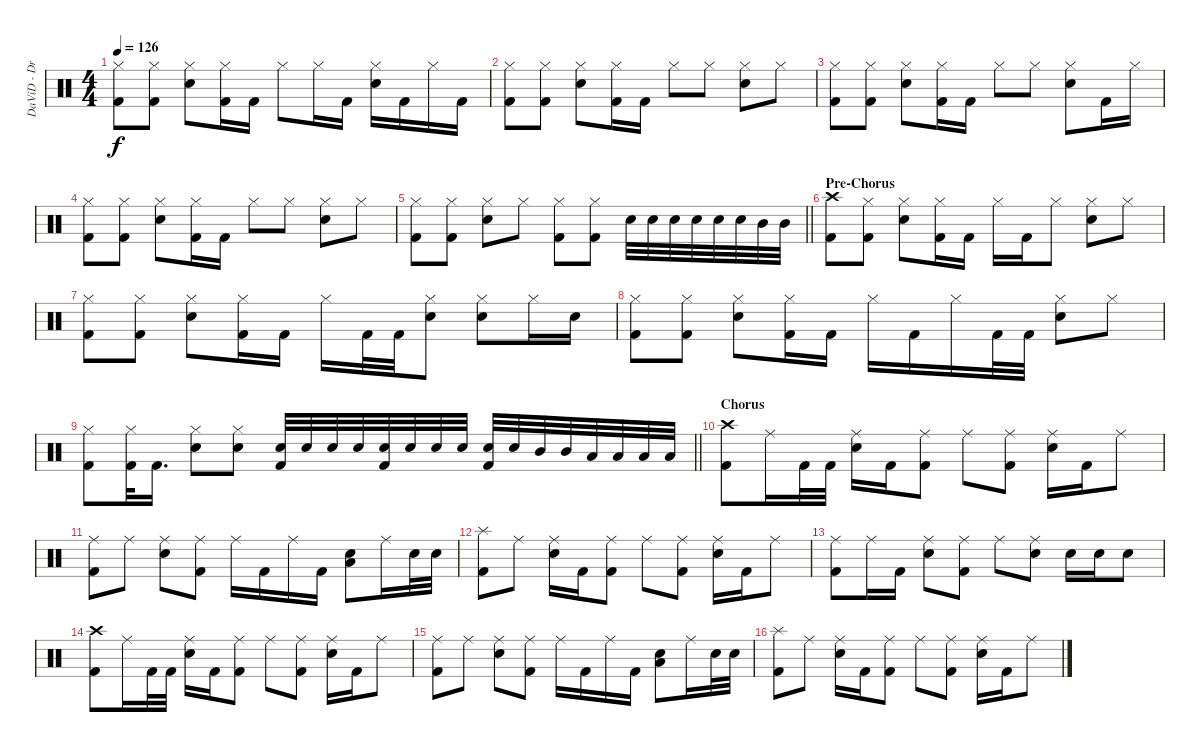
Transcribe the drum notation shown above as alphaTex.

\track ("DaViD - DruMzZ" "DaViD - Dr") {instrument percussion}
\staff {score}
\articulation defaults
\ts (4 4)
\tempo 126
\clef neutral
\ks c
("Hi-Hat (closed)" "Kick (hit) 2").8{dy f} ("Hi-Hat (closed)" "Kick (hit) 2").8 ("Hi-Hat (closed)" "Snare (hit) 2").8 ("Hi-Hat (closed)" "Kick (hit) 2").16 "Kick (hit) 2".16 "Hi-Hat (closed)".8 "Hi-Hat (closed)".16 "Kick (hit) 2".16 ("Hi-Hat (closed)" "Snare (hit) 2").16 "Kick (hit) 2".16 "Hi-Hat (closed)".16 "Kick (hit) 2".16 |
("Hi-Hat (closed)" "Kick (hit) 2").8 ("Hi-Hat (closed)" "Kick (hit) 2").8 ("Hi-Hat (closed)" "Snare (hit) 2").8 ("Hi-Hat (closed)" "Kick (hit) 2").16 "Kick (hit) 2".16 "Hi-Hat (closed)".8 "Hi-Hat (closed)".8 ("Hi-Hat (closed)" "Snare (hit) 2").8 "Hi-Hat (closed)".8 |
("Hi-Hat (closed)" "Kick (hit) 2").8 ("Hi-Hat (closed)" "Kick (hit) 2").8 ("Hi-Hat (closed)" "Snare (hit) 2").8 ("Hi-Hat (closed)" "Kick (hit) 2").16 "Kick (hit) 2".16 "Hi-Hat (closed)".8 "Hi-Hat (closed)".8 ("Hi-Hat (closed)" "Snare (hit) 2").8 "Kick (hit) 2".16 "Hi-Hat (closed)".16 |
("Hi-Hat (closed)" "Kick (hit) 2").8 ("Hi-Hat (closed)" "Kick (hit) 2").8 ("Hi-Hat (closed)" "Snare (hit) 2").8 ("Hi-Hat (closed)" "Kick (hit) 2").16 "Kick (hit) 2".16 "Hi-Hat (closed)".8 "Hi-Hat (closed)".8 ("Hi-Hat (closed)" "Snare (hit) 2").8 "Hi-Hat (closed)".8 |
\barLineRight lightlight
("Hi-Hat (closed)" "Kick (hit) 2").8 ("Hi-Hat (closed)" "Kick (hit) 2").8 ("Hi-Hat (closed)" "Snare (hit) 2").8 "Hi-Hat (closed)".8 ("Hi-Hat (closed)" "Kick (hit) 2").8 ("Hi-Hat (closed)" "Kick (hit) 2").8 "Snare (hit) 2".32 "Snare (hit) 2".32 "Snare (hit) 2".32 "Snare (hit) 2".32 "Snare (hit) 2".32 "Snare (hit) 2".32 "Mid Tom (hit)".32 "Mid Tom (hit)".32 |
\section ("" "Pre-Chorus")
("Crash high (hit)" "Kick (hit) 2").8 ("Hi-Hat (closed)" "Kick (hit) 2").8 ("Hi-Hat (closed)" "Snare (hit) 2").8 ("Hi-Hat (closed)" "Kick (hit) 2").16 "Kick (hit) 2".16 "Hi-Hat (closed)".16 "Kick (hit) 2".16 "Hi-Hat (closed)".8 ("Hi-Hat (closed)" "Snare (hit) 2").8 "Hi-Hat (closed)".8 |
("Hi-Hat (closed)" "Kick (hit) 2").8 ("Hi-Hat (closed)" "Kick (hit) 2").8 ("Hi-Hat (closed)" "Snare (hit) 2").8 ("Hi-Hat (closed)" "Kick (hit) 2").16 "Kick (hit) 2".16 "Hi-Hat (closed)".16 "Kick (hit) 2".32 "Kick (hit) 2".32 ("Hi-Hat (closed)" "Snare (hit) 2").8 ("Hi-Hat (closed)" "Snare (hit) 2").8 "Hi-Hat (closed)".16 "Snare (hit) 2".16 |
("Hi-Hat (closed)" "Kick (hit) 2").8 ("Hi-Hat (closed)" "Kick (hit) 2").8 ("Hi-Hat (closed)" "Snare (hit) 2").8 ("Hi-Hat (closed)" "Kick (hit) 2").16 "Kick (hit) 2".16 "Hi-Hat (closed)".16 "Kick (hit) 2".16 "Hi-Hat (closed)".16 "Kick (hit) 2".32 "Kick (hit) 2".32 ("Hi-Hat (closed)" "Snare (hit) 2").8 "Hi-Hat (closed)".8 |
\barLineRight lightlight
("Hi-Hat (closed)" "Kick (hit) 2").8 ("Hi-Hat (closed)" "Kick (hit) 2").32 "Kick (hit) 2".16{d} ("Hi-Hat (closed)" "Snare (hit) 2").8 ("Hi-Hat (closed)" "Snare (hit) 2").8 ("Snare (hit) 2" "Kick (hit) 2").32 "Snare (hit) 2".32 "Snare (hit) 2".32 "Snare (hit) 2".32 ("Snare (hit) 2" "Kick (hit) 2").32 "Snare (hit) 2".32 "Snare (hit) 2".32 "Snare (hit) 2".32 ("Snare (hit) 2" "Kick (hit) 2").32 "Snare (hit) 2".32 "Mid Tom (hit)".32 "Mid Tom (hit)".32 "Low Tom (hit)".32 "Low Tom (hit)".32 "Low Floor Tom (hit)".32 "Low Floor Tom (hit)".32 |
\section ("" "Chorus")
("Crash high (hit)" "Kick (hit) 2").8 "Ride (middle)".16 "Kick (hit) 2".32 "Kick (hit) 2".32 ("Ride (middle)" "Snare (hit) 2").16 "Kick (hit) 2".16 ("Ride (middle)" "Kick (hit) 2").8 "Ride (middle)".8 ("Ride (middle)" "Kick (hit) 2").8 ("Ride (middle)" "Snare (hit) 2").16 "Kick (hit) 2".16 "Ride (middle)".8 |
("Ride (middle)" "Kick (hit) 2").8 "Ride (middle)".8 ("Ride (middle)" "Snare (hit) 2").8 ("Ride (middle)" "Kick (hit) 2").8 "Ride (middle)".16 "Kick (hit) 2".16 "Ride (middle)".16 "Kick (hit) 2".16 ("Snare (hit) 2" "Low Floor Tom (hit)").8 "Ride (middle)".16 "Snare (hit) 2".32 "Snare (hit) 2".32 |
("Splash (hit)" "Kick (hit) 2").8 "Ride (middle)".8 ("Ride (middle)" "Snare (hit) 2").16 "Kick (hit) 2".16 ("Ride (middle)" "Kick (hit) 2").8 "Ride (middle)".8 ("Ride (middle)" "Kick (hit) 2").8 ("Ride (middle)" "Snare (hit) 2").16 "Kick (hit) 2".16 "Ride (middle)".8 |
("Ride (middle)" "Kick (hit) 2").8 "Ride (middle)".16 "Kick (hit) 2".16 ("Ride (middle)" "Snare (hit) 2").8 ("Ride (middle)" "Kick (hit) 2").8 "Ride (middle)".8 ("Ride (middle)" "Snare (hit) 2").8 "Snare (hit) 2".16 "Snare (hit) 2".16 "Snare (hit) 2".8 |
("Crash high (hit)" "Kick (hit) 2").8 "Ride (middle)".16 "Kick (hit) 2".32 "Kick (hit) 2".32 ("Ride (middle)" "Snare (hit) 2").16 "Kick (hit) 2".16 ("Ride (middle)" "Kick (hit) 2").8 "Ride (middle)".8 ("Ride (middle)" "Kick (hit) 2").8 ("Ride (middle)" "Snare (hit) 2").16 "Kick (hit) 2".16 "Ride (middle)".8 |
("Ride (middle)" "Kick (hit) 2").8 "Ride (middle)".8 ("Ride (middle)" "Snare (hit) 2").8 ("Ride (middle)" "Kick (hit) 2").8 "Ride (middle)".16 "Kick (hit) 2".16 "Ride (middle)".16 "Kick (hit) 2".16 ("Snare (hit) 2" "Low Floor Tom (hit)").8 "Ride (middle)".16 "Snare (hit) 2".32 "Snare (hit) 2".32 |
("Splash (hit)" "Kick (hit) 2").8 "Ride (middle)".8 ("Ride (middle)" "Snare (hit) 2").16 "Kick (hit) 2".16 ("Ride (middle)" "Kick (hit) 2").8 "Ride (middle)".8 ("Ride (middle)" "Kick (hit) 2").8 ("Ride (middle)" "Snare (hit) 2").16 "Kick (hit) 2".16 "Ride (middle)".8
